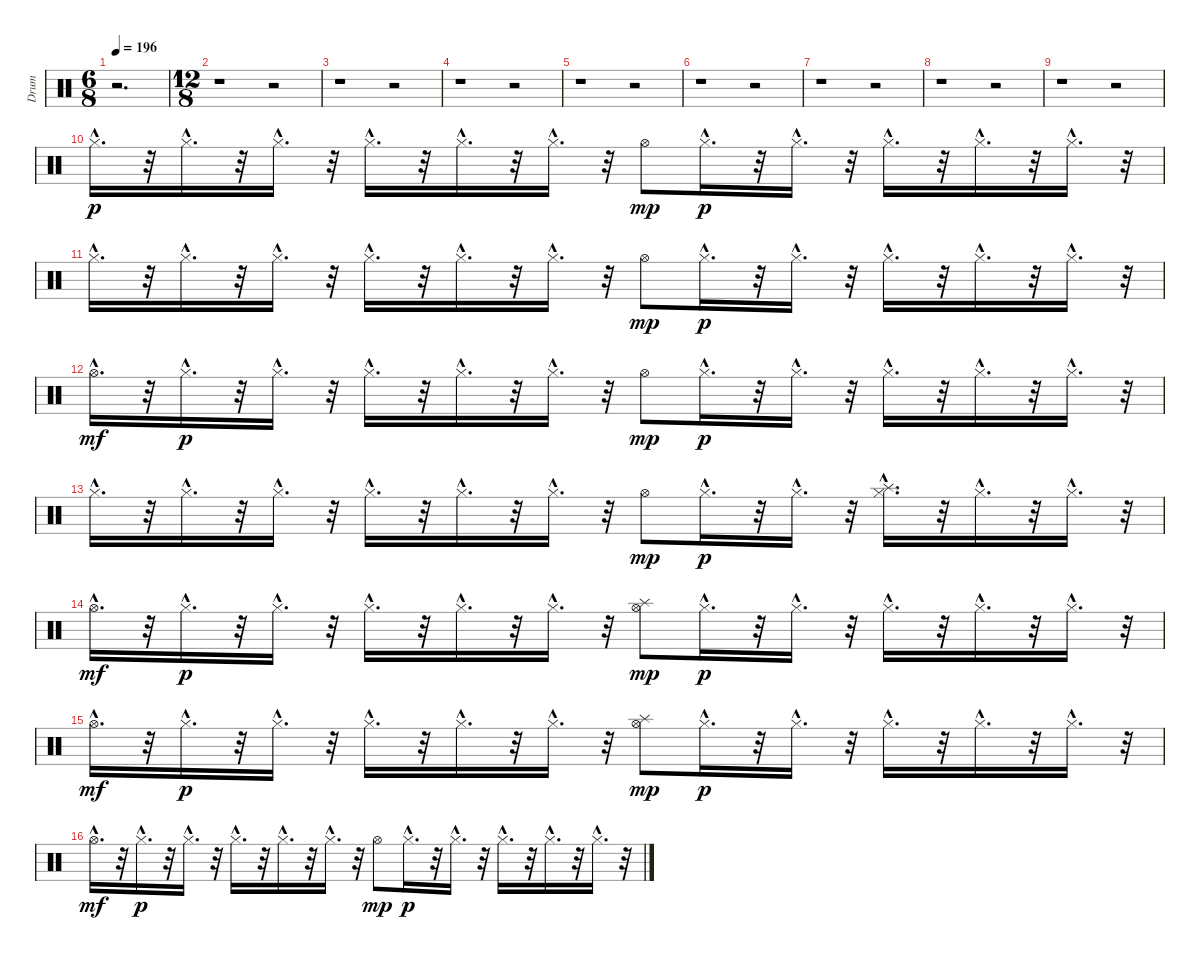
\track ("Drum" "Drum") {instrument percussion}
\staff {score}
\articulation defaults
\ts (6 8)
\tempo 196
\clef neutral
\ks c
r.2{d dy p} |
\ts (12 8)
r.1 r.2 |
r.1 r.2 |
r.1 r.2 |
r.1 r.2 |
r.1 r.2 |
r.1 r.2 |
r.1 r.2 |
r.1 r.2 |
"Hi-Hat (closed)"{hac}.16{d} r.32 "Hi-Hat (closed)"{hac}.16{d} r.32 "Hi-Hat (closed)"{hac}.16{d} r.32 "Hi-Hat (closed)"{hac}.16{d} r.32 "Hi-Hat (closed)"{hac}.16{d} r.32 "Hi-Hat (closed)"{hac}.16{d} r.32 "Hi-Hat (open)".8{dy mp} "Hi-Hat (closed)"{hac}.16{d dy p} r.32 "Hi-Hat (closed)"{hac}.16{d} r.32 "Hi-Hat (closed)"{hac}.16{d} r.32 "Hi-Hat (closed)"{hac}.16{d} r.32 "Hi-Hat (closed)"{hac}.16{d} r.32 |
"Hi-Hat (closed)"{hac}.16{d} r.32 "Hi-Hat (closed)"{hac}.16{d} r.32 "Hi-Hat (closed)"{hac}.16{d} r.32 "Hi-Hat (closed)"{hac}.16{d} r.32 "Hi-Hat (closed)"{hac}.16{d} r.32 "Hi-Hat (closed)"{hac}.16{d} r.32 "Hi-Hat (open)".8{dy mp} "Hi-Hat (closed)"{hac}.16{d dy p} r.32 "Hi-Hat (closed)"{hac}.16{d} r.32 "Hi-Hat (closed)"{hac}.16{d} r.32 "Hi-Hat (closed)"{hac}.16{d} r.32 "Hi-Hat (closed)"{hac}.16{d} r.32 |
"Hi-Hat (open)"{hac}.16{d dy mf} r.32 "Hi-Hat (closed)"{hac}.16{d dy p} r.32 "Hi-Hat (closed)"{hac}.16{d} r.32 "Hi-Hat (closed)"{hac}.16{d} r.32 "Hi-Hat (closed)"{hac}.16{d} r.32 "Hi-Hat (closed)"{hac}.16{d} r.32 "Hi-Hat (open)".8{dy mp} "Hi-Hat (closed)"{hac}.16{d dy p} r.32 "Hi-Hat (closed)"{hac}.16{d} r.32 "Hi-Hat (closed)"{hac}.16{d} r.32 "Hi-Hat (closed)"{hac}.16{d} r.32 "Hi-Hat (closed)"{hac}.16{d} r.32 |
"Hi-Hat (closed)"{hac}.16{d} r.32 "Hi-Hat (closed)"{hac}.16{d} r.32 "Hi-Hat (closed)"{hac}.16{d} r.32 "Hi-Hat (closed)"{hac}.16{d} r.32 "Hi-Hat (closed)"{hac}.16{d} r.32 "Hi-Hat (closed)"{hac}.16{d} r.32 "Hi-Hat (open)".8{dy mp} "Hi-Hat (closed)"{hac}.16{d dy p} r.32 "Hi-Hat (closed)"{hac}.16{d} r.32 ("Splash (hit)"{hac} "Hi-Hat (closed)"{hac}).16{d} r.32 "Hi-Hat (closed)"{hac}.16{d} r.32 "Hi-Hat (closed)"{hac}.16{d} r.32 |
"Hi-Hat (open)"{hac}.16{d dy mf} r.32 "Hi-Hat (closed)"{hac}.16{d dy p} r.32 "Hi-Hat (closed)"{hac}.16{d} r.32 "Hi-Hat (closed)"{hac}.16{d} r.32 "Hi-Hat (closed)"{hac}.16{d} r.32 "Hi-Hat (closed)"{hac}.16{d} r.32 ("Splash (hit)" "Hi-Hat (open)").8{dy mp} "Hi-Hat (closed)"{hac}.16{d dy p} r.32 "Hi-Hat (closed)"{hac}.16{d} r.32 "Hi-Hat (closed)"{hac}.16{d} r.32 "Hi-Hat (closed)"{hac}.16{d} r.32 "Hi-Hat (closed)"{hac}.16{d} r.32 |
"Hi-Hat (open)"{hac}.16{d dy mf} r.32 "Hi-Hat (closed)"{hac}.16{d dy p} r.32 "Hi-Hat (closed)"{hac}.16{d} r.32 "Hi-Hat (closed)"{hac}.16{d} r.32 "Hi-Hat (closed)"{hac}.16{d} r.32 "Hi-Hat (closed)"{hac}.16{d} r.32 ("Splash (hit)" "Hi-Hat (open)").8{dy mp} "Hi-Hat (closed)"{hac}.16{d dy p} r.32 "Hi-Hat (closed)"{hac}.16{d} r.32 "Hi-Hat (closed)"{hac}.16{d} r.32 "Hi-Hat (closed)"{hac}.16{d} r.32 "Hi-Hat (closed)"{hac}.16{d} r.32 |
"Hi-Hat (open)"{hac}.16{d dy mf} r.32 "Hi-Hat (closed)"{hac}.16{d dy p} r.32 "Hi-Hat (closed)"{hac}.16{d} r.32 "Hi-Hat (closed)"{hac}.16{d} r.32 "Hi-Hat (closed)"{hac}.16{d} r.32 "Hi-Hat (closed)"{hac}.16{d} r.32 "Hi-Hat (open)".8{dy mp} "Hi-Hat (closed)"{hac}.16{d dy p} r.32 "Hi-Hat (closed)"{hac}.16{d} r.32 "Hi-Hat (closed)"{hac}.16{d} r.32 "Hi-Hat (closed)"{hac}.16{d} r.32 "Hi-Hat (closed)"{hac}.16{d} r.32
